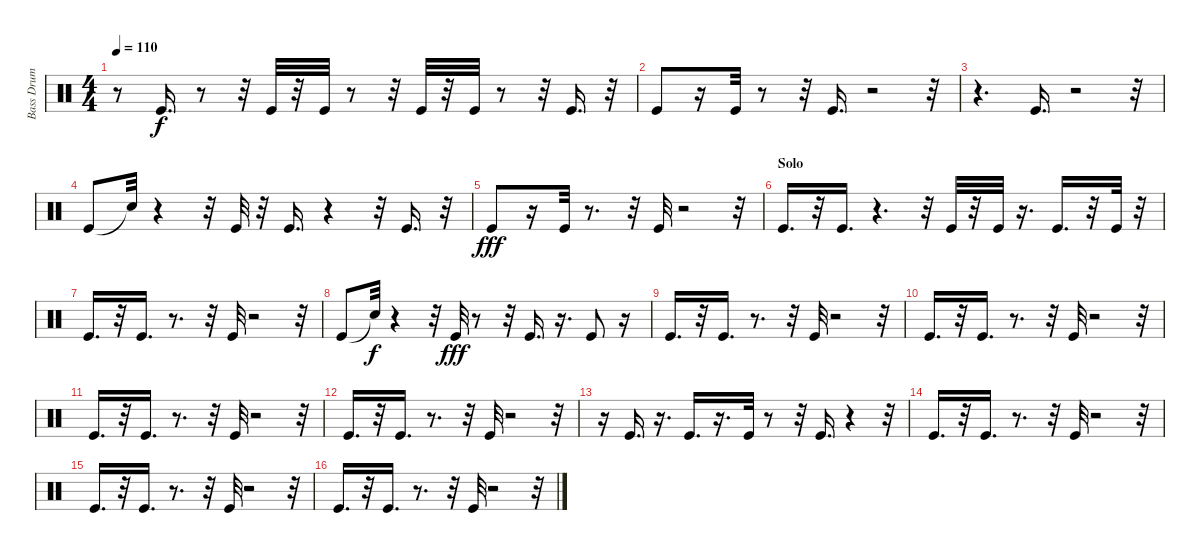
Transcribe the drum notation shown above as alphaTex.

\track ("Bass Drum" "Bass Drum") {instrument percussion}
\staff {score}
\articulation defaults
\ts (4 4)
\tempo 110
\clef neutral
\ks c
r.8{dy f} "Kick (hit)".16{d} r.8 r.32 "Kick (hit)".32 r.32 "Kick (hit)".32 r.8 r.32 "Kick (hit)".32 r.32 "Kick (hit)".32 r.8 r.32 "Kick (hit)".16{d} r.32 |
"Kick (hit)".8 r.16 "Kick (hit)".32 r.8 r.32 "Kick (hit)".16{d} r.2 r.32 |
r.4{d} "Kick (hit)".16{d} r.2 r.32 |
"Kick (hit)".8 "Snare (hit)"{t}.32 r.4 r.32 "Kick (hit)".32 r.32 "Kick (hit)".16{d} r.4 r.32 "Kick (hit)".16{d} r.32 |
"Kick (hit)".8{dy fff} r.16 "Kick (hit)".32 r.8{d} r.32 "Kick (hit)".32 r.2 r.32 |
\section ("" "Solo")
"Kick (hit)".16{d} r.32 "Kick (hit)".16{d} r.4{d} r.32 "Kick (hit)".32 r.32 "Kick (hit)".32 r.16{d} "Kick (hit)".16{d} r.32 "Kick (hit)".32 r.32 |
"Kick (hit)".16{d} r.32 "Kick (hit)".16{d} r.8{d} r.32 "Kick (hit)".32 r.2 r.32 |
"Kick (hit)".8 "Snare (hit)"{t}.32{dy f} r.4 r.32 "Kick (hit)".32{dy fff} r.8 r.32 "Kick (hit)".16{d} r.16{d} "Kick (hit)".8 r.16 |
"Kick (hit)".16{d} r.32 "Kick (hit)".16{d} r.8{d} r.32 "Kick (hit)".32 r.2 r.32 |
"Kick (hit)".16{d} r.32 "Kick (hit)".16{d} r.8{d} r.32 "Kick (hit)".32 r.2 r.32 |
"Kick (hit)".16{d} r.32 "Kick (hit)".16{d} r.8{d} r.32 "Kick (hit)".32 r.2 r.32 |
"Kick (hit)".16{d} r.32 "Kick (hit)".16{d} r.8{d} r.32 "Kick (hit)".32 r.2 r.32 |
r.16 "Kick (hit)".16{d} r.16{d} "Kick (hit)".16{d} r.16{d} "Kick (hit)".32 r.8 r.32 "Kick (hit)".16{d} r.4 r.32 |
"Kick (hit)".16{d} r.32 "Kick (hit)".16{d} r.8{d} r.32 "Kick (hit)".32 r.2 r.32 |
"Kick (hit)".16{d} r.32 "Kick (hit)".16{d} r.8{d} r.32 "Kick (hit)".32 r.2 r.32 |
"Kick (hit)".16{d} r.32 "Kick (hit)".16{d} r.8{d} r.32 "Kick (hit)".32 r.2 r.32
